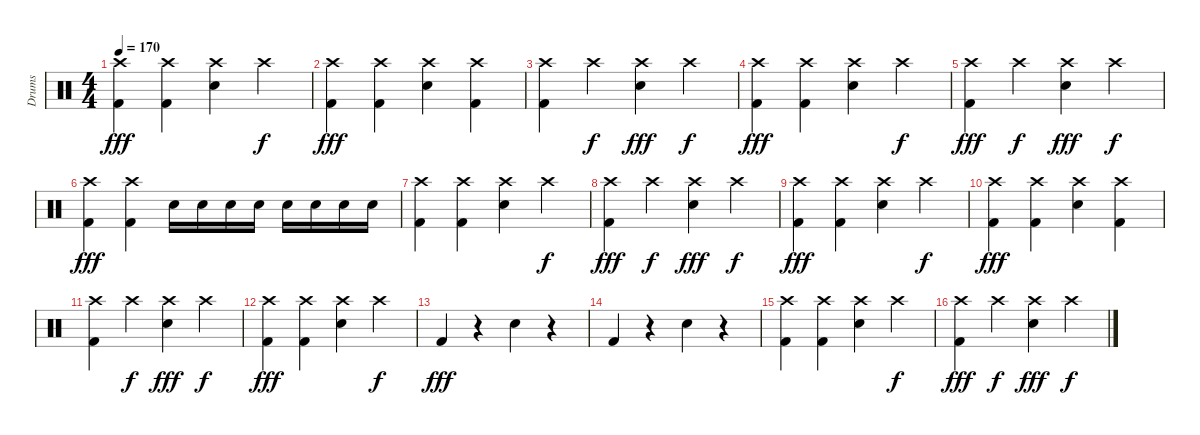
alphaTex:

\track ("Drums" "Drums") {instrument percussion}
\staff {score}
\articulation defaults
\ts (4 4)
\tempo 170
\clef neutral
\ks c
("Crash high (hit)" "Kick (hit) 2").4{dy fff} ("Crash high (hit)" "Kick (hit) 2").4 ("Crash high (hit)" "Electric Snare (hit)").4 "Crash high (hit)".4{dy f} |
("Crash high (hit)" "Kick (hit) 2").4{dy fff} ("Crash high (hit)" "Kick (hit) 2").4 ("Crash high (hit)" "Electric Snare (hit)").4 ("Crash high (hit)" "Kick (hit) 2").4 |
("Crash high (hit)" "Kick (hit) 2").4 "Crash high (hit)".4{dy f} ("Crash high (hit)" "Electric Snare (hit)").4{dy fff} "Crash high (hit)".4{dy f} |
("Crash high (hit)" "Kick (hit) 2").4{dy fff} ("Crash high (hit)" "Kick (hit) 2").4 ("Crash high (hit)" "Electric Snare (hit)").4 "Crash high (hit)".4{dy f} |
("Crash high (hit)" "Kick (hit) 2").4{dy fff} "Crash high (hit)".4{dy f} ("Crash high (hit)" "Electric Snare (hit)").4{dy fff} "Crash high (hit)".4{dy f} |
("Crash high (hit)" "Kick (hit) 2").4{dy fff} ("Crash high (hit)" "Kick (hit) 2").4 "Electric Snare (hit)".16 "Electric Snare (hit)".16 "Electric Snare (hit)".16 "Electric Snare (hit)".16 "Electric Snare (hit)".16 "Electric Snare (hit)".16 "Electric Snare (hit)".16 "Electric Snare (hit)".16 |
("Crash high (hit)" "Kick (hit) 2").4 ("Crash high (hit)" "Kick (hit) 2").4 ("Crash high (hit)" "Electric Snare (hit)").4 "Crash high (hit)".4{dy f} |
("Crash high (hit)" "Kick (hit) 2").4{dy fff} "Crash high (hit)".4{dy f} ("Crash high (hit)" "Electric Snare (hit)").4{dy fff} "Crash high (hit)".4{dy f} |
("Crash high (hit)" "Kick (hit) 2").4{dy fff} ("Crash high (hit)" "Kick (hit) 2").4 ("Crash high (hit)" "Electric Snare (hit)").4 "Crash high (hit)".4{dy f} |
("Crash high (hit)" "Kick (hit) 2").4{dy fff} ("Crash high (hit)" "Kick (hit) 2").4 ("Crash high (hit)" "Electric Snare (hit)").4 ("Crash high (hit)" "Kick (hit) 2").4 |
("Crash high (hit)" "Kick (hit) 2").4 "Crash high (hit)".4{dy f} ("Crash high (hit)" "Electric Snare (hit)").4{dy fff} "Crash high (hit)".4{dy f} |
("Crash high (hit)" "Kick (hit) 2").4{dy fff} ("Crash high (hit)" "Kick (hit) 2").4 ("Crash high (hit)" "Electric Snare (hit)").4 "Crash high (hit)".4{dy f} |
"Kick (hit) 2".4{dy fff} r.4 "Electric Snare (hit)".4 r.4 |
"Kick (hit) 2".4 r.4 "Electric Snare (hit)".4 r.4 |
("Crash high (hit)" "Kick (hit) 2").4 ("Crash high (hit)" "Kick (hit) 2").4 ("Crash high (hit)" "Electric Snare (hit)").4 "Crash high (hit)".4{dy f} |
("Crash high (hit)" "Kick (hit) 2").4{dy fff} "Crash high (hit)".4{dy f} ("Crash high (hit)" "Electric Snare (hit)").4{dy fff} "Crash high (hit)".4{dy f}
